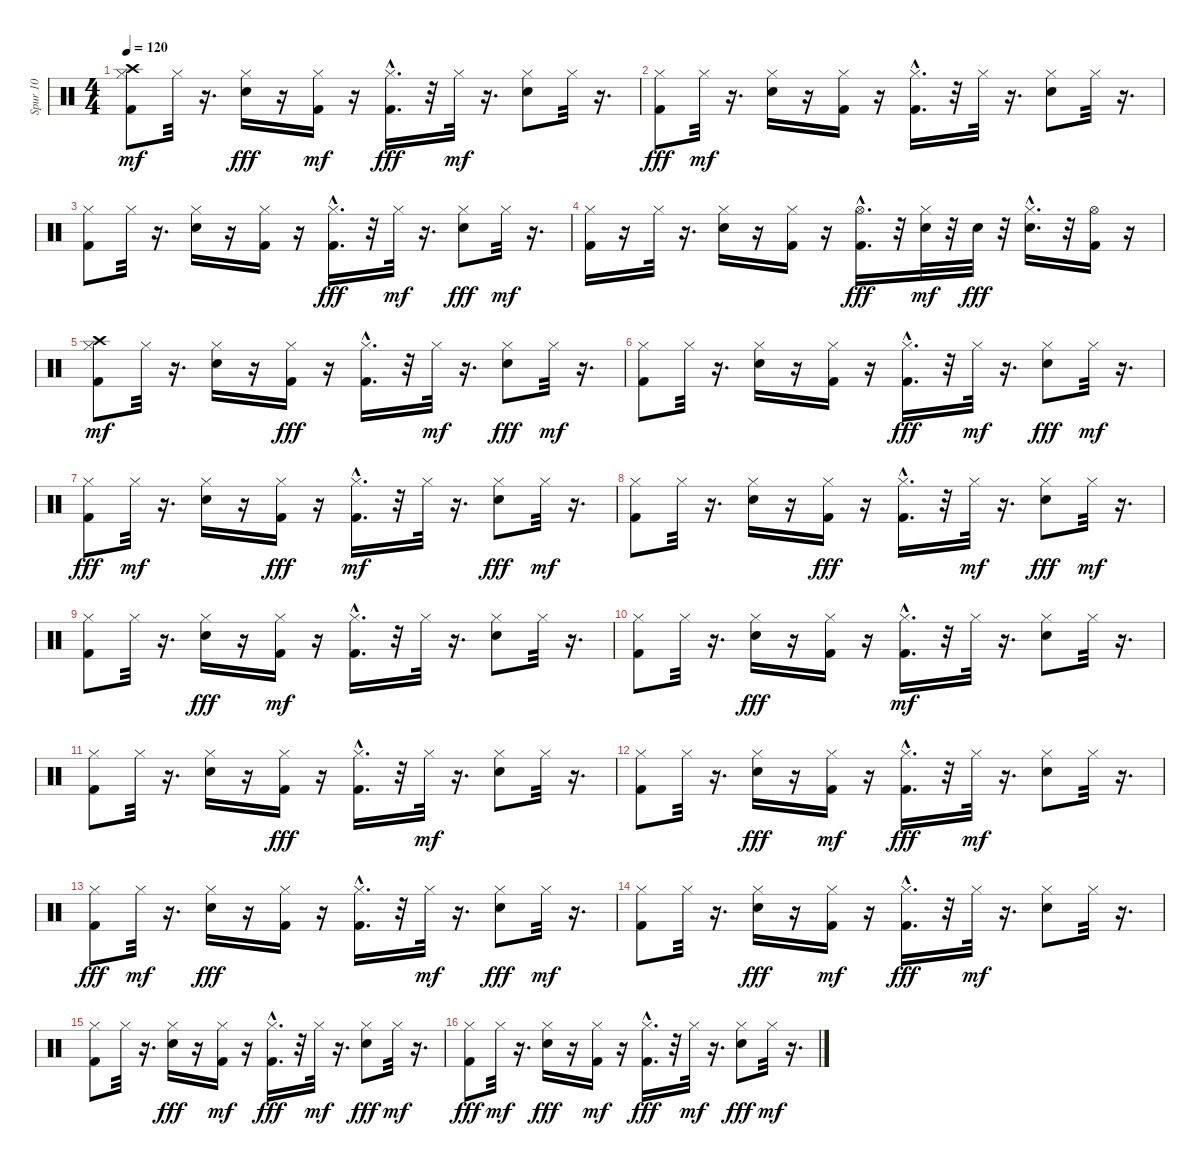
\track ("Spur 10" "Spur 10") {instrument percussion}
\staff {score}
\articulation defaults
\ts (4 4)
\tempo 120
\clef neutral
\ks c
("Crash high (hit)" "Kick (hit) 2" "Hi-Hat (closed)").8{dy mf} "Hi-Hat (closed)".32 r.16{d} ("Hi-Hat (closed)" "Electric Snare (hit)").16{dy fff} r.16 ("Kick (hit) 2" "Hi-Hat (closed)").16{dy mf} r.16 ("Hi-Hat (closed)" "Kick (hit) 2"{hac}).16{d dy fff} r.32 "Hi-Hat (closed)".32{dy mf} r.16{d} ("Electric Snare (hit)" "Hi-Hat (closed)").8 "Hi-Hat (closed)".32 r.16{d} |
("Hi-Hat (closed)" "Kick (hit) 2").8{dy fff} "Hi-Hat (closed)".32{dy mf} r.16{d} ("Electric Snare (hit)" "Hi-Hat (closed)").16 r.16 ("Kick (hit) 2" "Hi-Hat (closed)").16 r.16 ("Kick (hit) 2"{hac} "Hi-Hat (closed)").16{d} r.32 "Hi-Hat (closed)".32 r.16{d} ("Electric Snare (hit)" "Hi-Hat (closed)").8 "Hi-Hat (closed)".32 r.16{d} |
("Kick (hit) 2" "Hi-Hat (closed)").8 "Hi-Hat (closed)".32 r.16{d} ("Electric Snare (hit)" "Hi-Hat (closed)").16 r.16 ("Kick (hit) 2" "Hi-Hat (closed)").16 r.16 ("Hi-Hat (closed)" "Kick (hit) 2"{hac}).16{d dy fff} r.32 "Hi-Hat (closed)".32{dy mf} r.16{d} ("Hi-Hat (closed)" "Electric Snare (hit)").8{dy fff} "Hi-Hat (closed)".32{dy mf} r.16{d} |
("Kick (hit) 2" "Hi-Hat (closed)").16 r.16 "Hi-Hat (closed)".32 r.16{d} ("Electric Snare (hit)" "Hi-Hat (closed)").16 r.16 ("Kick (hit) 2" "Hi-Hat (closed)").16 r.16 ("Hi-Hat (open)" "Kick (hit) 2"{hac}).16{d dy fff} r.32 ("Electric Snare (hit)" "Hi-Hat (closed)").32{dy mf} r.32 "Electric Snare (hit)".32{dy fff} r.32 ("Hi-Hat (closed)" "Electric Snare (hit)"{hac}).16{d} r.32 ("Hi-Hat (open)" "Kick (hit) 2").16 r.16 |
("Crash high (hit)" "Kick (hit) 2" "Hi-Hat (closed)").8{dy mf} "Hi-Hat (closed)".32 r.16{d} ("Electric Snare (hit)" "Hi-Hat (closed)").16 r.16 ("Hi-Hat (closed)" "Kick (hit) 2").16{dy fff} r.16 ("Hi-Hat (closed)" "Kick (hit) 2"{hac}).16{d} r.32 "Hi-Hat (closed)".32{dy mf} r.16{d} ("Hi-Hat (closed)" "Electric Snare (hit)").8{dy fff} "Hi-Hat (closed)".32{dy mf} r.16{d} |
("Kick (hit) 2" "Hi-Hat (closed)").8 "Hi-Hat (closed)".32 r.16{d} ("Electric Snare (hit)" "Hi-Hat (closed)").16 r.16 ("Kick (hit) 2" "Hi-Hat (closed)").16 r.16 ("Hi-Hat (closed)" "Kick (hit) 2"{hac}).16{d dy fff} r.32 "Hi-Hat (closed)".32{dy mf} r.16{d} ("Hi-Hat (closed)" "Electric Snare (hit)").8{dy fff} "Hi-Hat (closed)".32{dy mf} r.16{d} |
("Hi-Hat (closed)" "Kick (hit) 2").8{dy fff} "Hi-Hat (closed)".32{dy mf} r.16{d} ("Electric Snare (hit)" "Hi-Hat (closed)").16 r.16 ("Hi-Hat (closed)" "Kick (hit) 2").16{dy fff} r.16 ("Kick (hit) 2"{hac} "Hi-Hat (closed)").16{d dy mf} r.32 "Hi-Hat (closed)".32 r.16{d} ("Hi-Hat (closed)" "Electric Snare (hit)").8{dy fff} "Hi-Hat (closed)".32{dy mf} r.16{d} |
("Kick (hit) 2" "Hi-Hat (closed)").8 "Hi-Hat (closed)".32 r.16{d} ("Electric Snare (hit)" "Hi-Hat (closed)").16 r.16 ("Hi-Hat (closed)" "Kick (hit) 2").16{dy fff} r.16 ("Hi-Hat (closed)" "Kick (hit) 2"{hac}).16{d} r.32 "Hi-Hat (closed)".32{dy mf} r.16{d} ("Hi-Hat (closed)" "Electric Snare (hit)").8{dy fff} "Hi-Hat (closed)".32{dy mf} r.16{d} |
("Kick (hit) 2" "Hi-Hat (closed)").8 "Hi-Hat (closed)".32 r.16{d} ("Hi-Hat (closed)" "Electric Snare (hit)").16{dy fff} r.16 ("Kick (hit) 2" "Hi-Hat (closed)").16{dy mf} r.16 ("Kick (hit) 2"{hac} "Hi-Hat (closed)").16{d} r.32 "Hi-Hat (closed)".32 r.16{d} ("Electric Snare (hit)" "Hi-Hat (closed)").8 "Hi-Hat (closed)".32 r.16{d} |
("Kick (hit) 2" "Hi-Hat (closed)").8 "Hi-Hat (closed)".32 r.16{d} ("Hi-Hat (closed)" "Electric Snare (hit)").16{dy fff} r.16 ("Hi-Hat (closed)" "Kick (hit) 2").16 r.16 ("Kick (hit) 2"{hac} "Hi-Hat (closed)").16{d dy mf} r.32 "Hi-Hat (closed)".32 r.16{d} ("Electric Snare (hit)" "Hi-Hat (closed)").8 "Hi-Hat (closed)".32 r.16{d} |
("Kick (hit) 2" "Hi-Hat (closed)").8 "Hi-Hat (closed)".32 r.16{d} ("Electric Snare (hit)" "Hi-Hat (closed)").16 r.16 ("Hi-Hat (closed)" "Kick (hit) 2").16{dy fff} r.16 ("Hi-Hat (closed)" "Kick (hit) 2"{hac}).16{d} r.32 "Hi-Hat (closed)".32{dy mf} r.16{d} ("Electric Snare (hit)" "Hi-Hat (closed)").8 "Hi-Hat (closed)".32 r.16{d} |
("Kick (hit) 2" "Hi-Hat (closed)").8 "Hi-Hat (closed)".32 r.16{d} ("Hi-Hat (closed)" "Electric Snare (hit)").16{dy fff} r.16 ("Kick (hit) 2" "Hi-Hat (closed)").16{dy mf} r.16 ("Hi-Hat (closed)" "Kick (hit) 2"{hac}).16{d dy fff} r.32 "Hi-Hat (closed)".32{dy mf} r.16{d} ("Electric Snare (hit)" "Hi-Hat (closed)").8 "Hi-Hat (closed)".32 r.16{d} |
("Hi-Hat (closed)" "Kick (hit) 2").8{dy fff} "Hi-Hat (closed)".32{dy mf} r.16{d} ("Hi-Hat (closed)" "Electric Snare (hit)").16{dy fff} r.16 ("Hi-Hat (closed)" "Kick (hit) 2").16 r.16 ("Hi-Hat (closed)" "Kick (hit) 2"{hac}).16{d} r.32 "Hi-Hat (closed)".32{dy mf} r.16{d} ("Hi-Hat (closed)" "Electric Snare (hit)").8{dy fff} "Hi-Hat (closed)".32{dy mf} r.16{d} |
("Kick (hit) 2" "Hi-Hat (closed)").8 "Hi-Hat (closed)".32 r.16{d} ("Hi-Hat (closed)" "Electric Snare (hit)").16{dy fff} r.16 ("Kick (hit) 2" "Hi-Hat (closed)").16{dy mf} r.16 ("Hi-Hat (closed)" "Kick (hit) 2"{hac}).16{d dy fff} r.32 "Hi-Hat (closed)".32{dy mf} r.16{d} ("Electric Snare (hit)" "Hi-Hat (closed)").8 "Hi-Hat (closed)".32 r.16{d} |
("Kick (hit) 2" "Hi-Hat (closed)").8 "Hi-Hat (closed)".32 r.16{d} ("Hi-Hat (closed)" "Electric Snare (hit)").16{dy fff} r.16 ("Kick (hit) 2" "Hi-Hat (closed)").16{dy mf} r.16 ("Hi-Hat (closed)" "Kick (hit) 2"{hac}).16{d dy fff} r.32 "Hi-Hat (closed)".32{dy mf} r.16{d} ("Hi-Hat (closed)" "Electric Snare (hit)").8{dy fff} "Hi-Hat (closed)".32{dy mf} r.16{d} |
("Hi-Hat (closed)" "Kick (hit) 2").8{dy fff} "Hi-Hat (closed)".32{dy mf} r.16{d} ("Hi-Hat (closed)" "Electric Snare (hit)").16{dy fff} r.16 ("Kick (hit) 2" "Hi-Hat (closed)").16{dy mf} r.16 ("Hi-Hat (closed)" "Kick (hit) 2"{hac}).16{d dy fff} r.32 "Hi-Hat (closed)".32{dy mf} r.16{d} ("Hi-Hat (closed)" "Electric Snare (hit)").8{dy fff} "Hi-Hat (closed)".32{dy mf} r.16{d}
